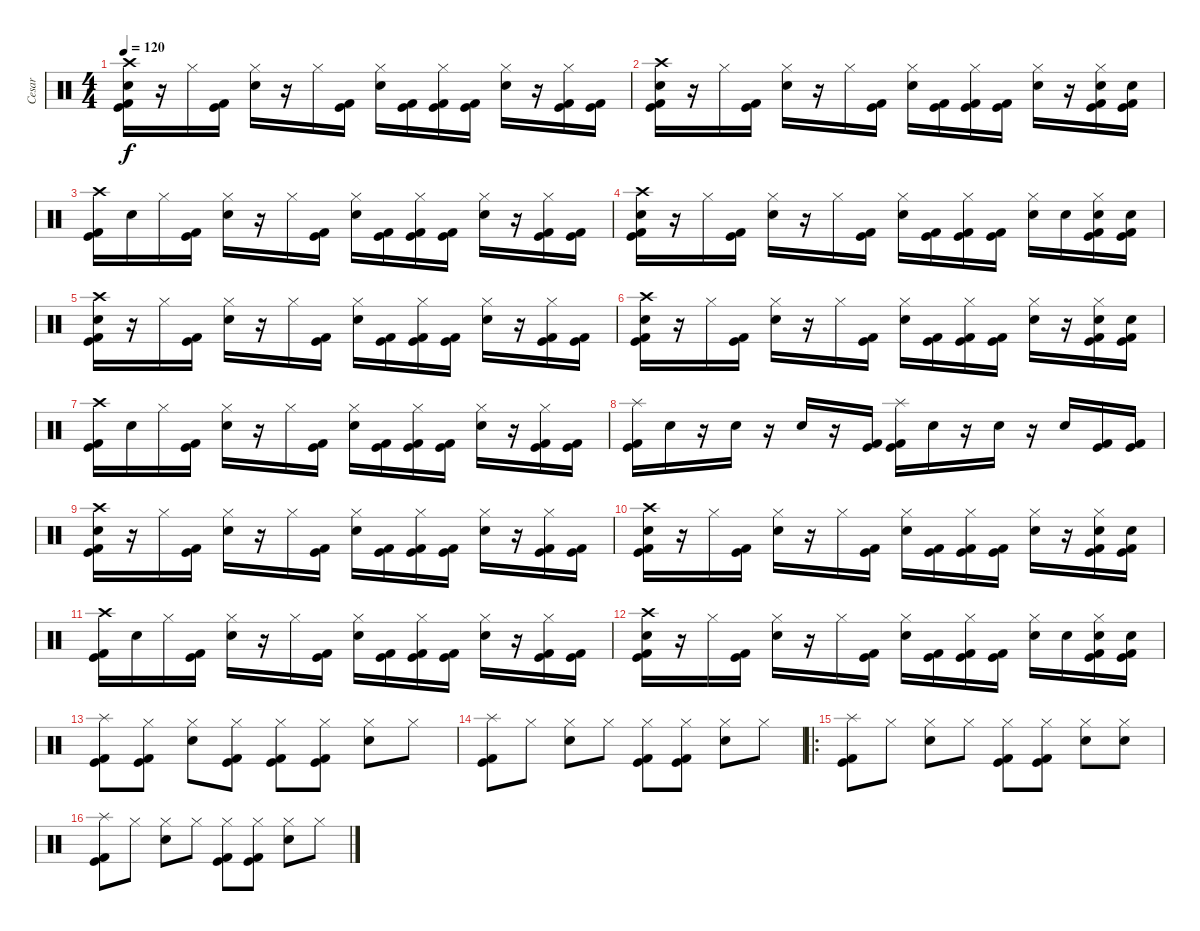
\track ("Cesar" "Cesar") {instrument percussion}
\staff {score}
\articulation defaults
\ts (4 4)
\tempo 120
\clef neutral
\ks c
("Crash high (hit)" "Electric Snare (hit)" "Kick (hit) 2" "Kick (hit)").16{dy f} r.16 "Hi-Hat (closed)".16 ("Kick (hit)" "Kick (hit) 2").16 ("Hi-Hat (closed)" "Electric Snare (hit)").16 r.16 "Hi-Hat (closed)".16 ("Kick (hit) 2" "Kick (hit)").16 ("Hi-Hat (closed)" "Electric Snare (hit)").16 ("Kick (hit) 2" "Kick (hit)").16 ("Hi-Hat (closed)" "Kick (hit) 2" "Kick (hit)").16 ("Kick (hit) 2" "Kick (hit)").16 ("Hi-Hat (closed)" "Electric Snare (hit)").16 r.16 ("Hi-Hat (closed)" "Kick (hit) 2" "Kick (hit)").16 ("Kick (hit) 2" "Kick (hit)").16 |
("Crash high (hit)" "Electric Snare (hit)" "Kick (hit) 2" "Kick (hit)").16 r.16 "Hi-Hat (closed)".16 ("Kick (hit)" "Kick (hit) 2").16 ("Hi-Hat (closed)" "Electric Snare (hit)").16 r.16 "Hi-Hat (closed)".16 ("Kick (hit) 2" "Kick (hit)").16 ("Hi-Hat (closed)" "Electric Snare (hit)").16 ("Kick (hit) 2" "Kick (hit)").16 ("Hi-Hat (closed)" "Kick (hit) 2" "Kick (hit)").16 ("Kick (hit) 2" "Kick (hit)").16 ("Hi-Hat (closed)" "Electric Snare (hit)").16 r.16 ("Hi-Hat (closed)" "Electric Snare (hit)" "Kick (hit) 2" "Kick (hit)").16 ("Electric Snare (hit)" "Kick (hit) 2" "Kick (hit)").16 |
("Crash high (hit)" "Kick (hit) 2" "Kick (hit)").16 "Electric Snare (hit)".16 "Hi-Hat (closed)".16 ("Kick (hit)" "Kick (hit) 2").16 ("Hi-Hat (closed)" "Electric Snare (hit)").16 r.16 "Hi-Hat (closed)".16 ("Kick (hit) 2" "Kick (hit)").16 ("Hi-Hat (closed)" "Electric Snare (hit)").16 ("Kick (hit) 2" "Kick (hit)").16 ("Hi-Hat (closed)" "Kick (hit) 2" "Kick (hit)").16 ("Kick (hit) 2" "Kick (hit)").16 ("Hi-Hat (closed)" "Electric Snare (hit)").16 r.16 ("Hi-Hat (closed)" "Kick (hit) 2" "Kick (hit)").16 ("Kick (hit) 2" "Kick (hit)").16 |
("Crash high (hit)" "Electric Snare (hit)" "Kick (hit) 2" "Kick (hit)").16 r.16 "Hi-Hat (closed)".16 ("Kick (hit)" "Kick (hit) 2").16 ("Hi-Hat (closed)" "Electric Snare (hit)").16 r.16 "Hi-Hat (closed)".16 ("Kick (hit) 2" "Kick (hit)").16 ("Hi-Hat (closed)" "Electric Snare (hit)").16 ("Kick (hit) 2" "Kick (hit)").16 ("Hi-Hat (closed)" "Kick (hit) 2" "Kick (hit)").16 ("Kick (hit) 2" "Kick (hit)").16 ("Hi-Hat (closed)" "Electric Snare (hit)").16 "Electric Snare (hit)".16 ("Hi-Hat (closed)" "Electric Snare (hit)" "Kick (hit) 2" "Kick (hit)").16 ("Electric Snare (hit)" "Kick (hit) 2" "Kick (hit)").16 |
("Crash high (hit)" "Electric Snare (hit)" "Kick (hit) 2" "Kick (hit)").16 r.16 "Hi-Hat (closed)".16 ("Kick (hit)" "Kick (hit) 2").16 ("Hi-Hat (closed)" "Electric Snare (hit)").16 r.16 "Hi-Hat (closed)".16 ("Kick (hit) 2" "Kick (hit)").16 ("Hi-Hat (closed)" "Electric Snare (hit)").16 ("Kick (hit) 2" "Kick (hit)").16 ("Hi-Hat (closed)" "Kick (hit) 2" "Kick (hit)").16 ("Kick (hit) 2" "Kick (hit)").16 ("Hi-Hat (closed)" "Electric Snare (hit)").16 r.16 ("Hi-Hat (closed)" "Kick (hit) 2" "Kick (hit)").16 ("Kick (hit) 2" "Kick (hit)").16 |
("Crash high (hit)" "Electric Snare (hit)" "Kick (hit) 2" "Kick (hit)").16 r.16 "Hi-Hat (closed)".16 ("Kick (hit)" "Kick (hit) 2").16 ("Hi-Hat (closed)" "Electric Snare (hit)").16 r.16 "Hi-Hat (closed)".16 ("Kick (hit) 2" "Kick (hit)").16 ("Hi-Hat (closed)" "Electric Snare (hit)").16 ("Kick (hit) 2" "Kick (hit)").16 ("Hi-Hat (closed)" "Kick (hit) 2" "Kick (hit)").16 ("Kick (hit) 2" "Kick (hit)").16 ("Hi-Hat (closed)" "Electric Snare (hit)").16 r.16 ("Hi-Hat (closed)" "Electric Snare (hit)" "Kick (hit) 2" "Kick (hit)").16 ("Electric Snare (hit)" "Kick (hit) 2" "Kick (hit)").16 |
("Crash high (hit)" "Kick (hit) 2" "Kick (hit)").16 "Electric Snare (hit)".16 "Hi-Hat (closed)".16 ("Kick (hit)" "Kick (hit) 2").16 ("Hi-Hat (closed)" "Electric Snare (hit)").16 r.16 "Hi-Hat (closed)".16 ("Kick (hit) 2" "Kick (hit)").16 ("Hi-Hat (closed)" "Electric Snare (hit)").16 ("Kick (hit) 2" "Kick (hit)").16 ("Hi-Hat (closed)" "Kick (hit) 2" "Kick (hit)").16 ("Kick (hit) 2" "Kick (hit)").16 ("Hi-Hat (closed)" "Electric Snare (hit)").16 r.16 ("Hi-Hat (closed)" "Kick (hit) 2" "Kick (hit)").16 ("Kick (hit) 2" "Kick (hit)").16 |
("Splash (hit)" "Kick (hit) 2" "Kick (hit)").16 "Electric Snare (hit)".16 r.16 "Electric Snare (hit)".16 r.16 "Electric Snare (hit)".16 r.16 ("Kick (hit) 2" "Kick (hit)").16 ("Splash (hit)" "Kick (hit) 2" "Kick (hit)").16 "Electric Snare (hit)".16 r.16 "Electric Snare (hit)".16 r.16 "Electric Snare (hit)".16 ("Kick (hit) 2" "Kick (hit)").16 ("Kick (hit) 2" "Kick (hit)").16 |
("Crash high (hit)" "Electric Snare (hit)" "Kick (hit) 2" "Kick (hit)").16 r.16 "Hi-Hat (closed)".16 ("Kick (hit)" "Kick (hit) 2").16 ("Hi-Hat (closed)" "Electric Snare (hit)").16 r.16 "Hi-Hat (closed)".16 ("Kick (hit) 2" "Kick (hit)").16 ("Hi-Hat (closed)" "Electric Snare (hit)").16 ("Kick (hit) 2" "Kick (hit)").16 ("Hi-Hat (closed)" "Kick (hit) 2" "Kick (hit)").16 ("Kick (hit) 2" "Kick (hit)").16 ("Hi-Hat (closed)" "Electric Snare (hit)").16 r.16 ("Hi-Hat (closed)" "Kick (hit) 2" "Kick (hit)").16 ("Kick (hit) 2" "Kick (hit)").16 |
("Crash high (hit)" "Electric Snare (hit)" "Kick (hit) 2" "Kick (hit)").16 r.16 "Hi-Hat (closed)".16 ("Kick (hit)" "Kick (hit) 2").16 ("Hi-Hat (closed)" "Electric Snare (hit)").16 r.16 "Hi-Hat (closed)".16 ("Kick (hit) 2" "Kick (hit)").16 ("Hi-Hat (closed)" "Electric Snare (hit)").16 ("Kick (hit) 2" "Kick (hit)").16 ("Hi-Hat (closed)" "Kick (hit) 2" "Kick (hit)").16 ("Kick (hit) 2" "Kick (hit)").16 ("Hi-Hat (closed)" "Electric Snare (hit)").16 r.16 ("Hi-Hat (closed)" "Electric Snare (hit)" "Kick (hit) 2" "Kick (hit)").16 ("Electric Snare (hit)" "Kick (hit) 2" "Kick (hit)").16 |
("Crash high (hit)" "Kick (hit) 2" "Kick (hit)").16 "Electric Snare (hit)".16 "Hi-Hat (closed)".16 ("Kick (hit)" "Kick (hit) 2").16 ("Hi-Hat (closed)" "Electric Snare (hit)").16 r.16 "Hi-Hat (closed)".16 ("Kick (hit) 2" "Kick (hit)").16 ("Hi-Hat (closed)" "Electric Snare (hit)").16 ("Kick (hit) 2" "Kick (hit)").16 ("Hi-Hat (closed)" "Kick (hit) 2" "Kick (hit)").16 ("Kick (hit) 2" "Kick (hit)").16 ("Hi-Hat (closed)" "Electric Snare (hit)").16 r.16 ("Hi-Hat (closed)" "Kick (hit) 2" "Kick (hit)").16 ("Kick (hit) 2" "Kick (hit)").16 |
("Crash high (hit)" "Electric Snare (hit)" "Kick (hit) 2" "Kick (hit)").16 r.16 "Hi-Hat (closed)".16 ("Kick (hit)" "Kick (hit) 2").16 ("Hi-Hat (closed)" "Electric Snare (hit)").16 r.16 "Hi-Hat (closed)".16 ("Kick (hit) 2" "Kick (hit)").16 ("Hi-Hat (closed)" "Electric Snare (hit)").16 ("Kick (hit) 2" "Kick (hit)").16 ("Hi-Hat (closed)" "Kick (hit) 2" "Kick (hit)").16 ("Kick (hit) 2" "Kick (hit)").16 ("Hi-Hat (closed)" "Electric Snare (hit)").16 "Electric Snare (hit)".16 ("Hi-Hat (closed)" "Electric Snare (hit)" "Kick (hit) 2" "Kick (hit)").16 ("Electric Snare (hit)" "Kick (hit) 2" "Kick (hit)").16 |
("Splash (hit)" "Kick (hit) 2" "Kick (hit)").8 ("Hi-Hat (closed)" "Kick (hit) 2" "Kick (hit)").8 ("Hi-Hat (closed)" "Electric Snare (hit)").8 ("Hi-Hat (closed)" "Kick (hit) 2" "Kick (hit)").8 ("Hi-Hat (closed)" "Kick (hit) 2" "Kick (hit)").8 ("Hi-Hat (closed)" "Kick (hit) 2" "Kick (hit)").8 ("Hi-Hat (closed)" "Electric Snare (hit)").8 "Hi-Hat (closed)".8 |
("Splash (hit)" "Kick (hit) 2" "Kick (hit)").8 "Hi-Hat (closed)".8 ("Hi-Hat (closed)" "Electric Snare (hit)").8 "Hi-Hat (closed)".8 ("Hi-Hat (closed)" "Kick (hit) 2" "Kick (hit)").8 ("Hi-Hat (closed)" "Kick (hit) 2" "Kick (hit)").8 ("Hi-Hat (closed)" "Electric Snare (hit)").8 "Hi-Hat (closed)".8 |
\ro
("Splash (hit)" "Kick (hit) 2" "Kick (hit)").8 "Hi-Hat (closed)".8 ("Hi-Hat (closed)" "Electric Snare (hit)").8 "Hi-Hat (closed)".8 ("Hi-Hat (closed)" "Kick (hit) 2" "Kick (hit)").8 ("Hi-Hat (closed)" "Kick (hit) 2" "Kick (hit)").8 ("Hi-Hat (closed)" "Electric Snare (hit)").8 ("Hi-Hat (closed)" "Electric Snare (hit)").8 |
("Splash (hit)" "Kick (hit) 2" "Kick (hit)").8 "Hi-Hat (closed)".8 ("Hi-Hat (closed)" "Electric Snare (hit)").8 "Hi-Hat (closed)".8 ("Hi-Hat (closed)" "Kick (hit) 2" "Kick (hit)").8 ("Hi-Hat (closed)" "Kick (hit) 2" "Kick (hit)").8 ("Hi-Hat (closed)" "Electric Snare (hit)").8 "Hi-Hat (closed)".8
